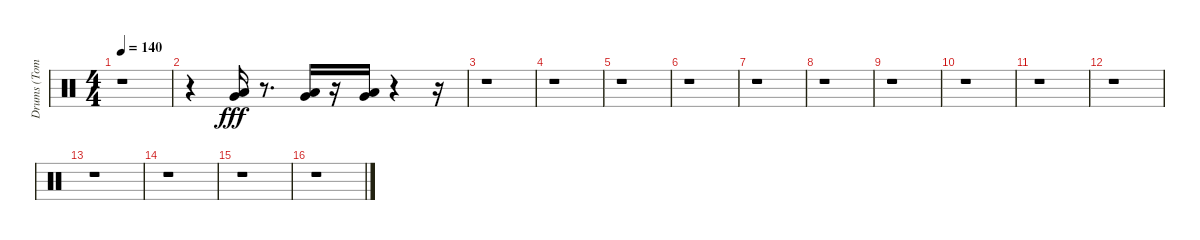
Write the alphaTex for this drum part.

\track ("Drums (Toms)" "Drums (Tom") {instrument percussion}
\staff {score}
\articulation defaults
\ts (4 4)
\tempo 140
\clef neutral
\ks c
r.1{dy fff} |
r.4 ("Very Low Tom (hit)" "Low Floor Tom (hit)").16 r.8{d} ("Very Low Tom (hit)" "Low Floor Tom (hit)").16 r.16 ("Very Low Tom (hit)" "Low Floor Tom (hit)").16 r.4 r.16 |
r.1 |
r.1 |
r.1 |
r.1 |
r.1 |
r.1 |
r.1 |
r.1 |
r.1 |
r.1 |
r.1 |
r.1 |
r.1 |
r.1
